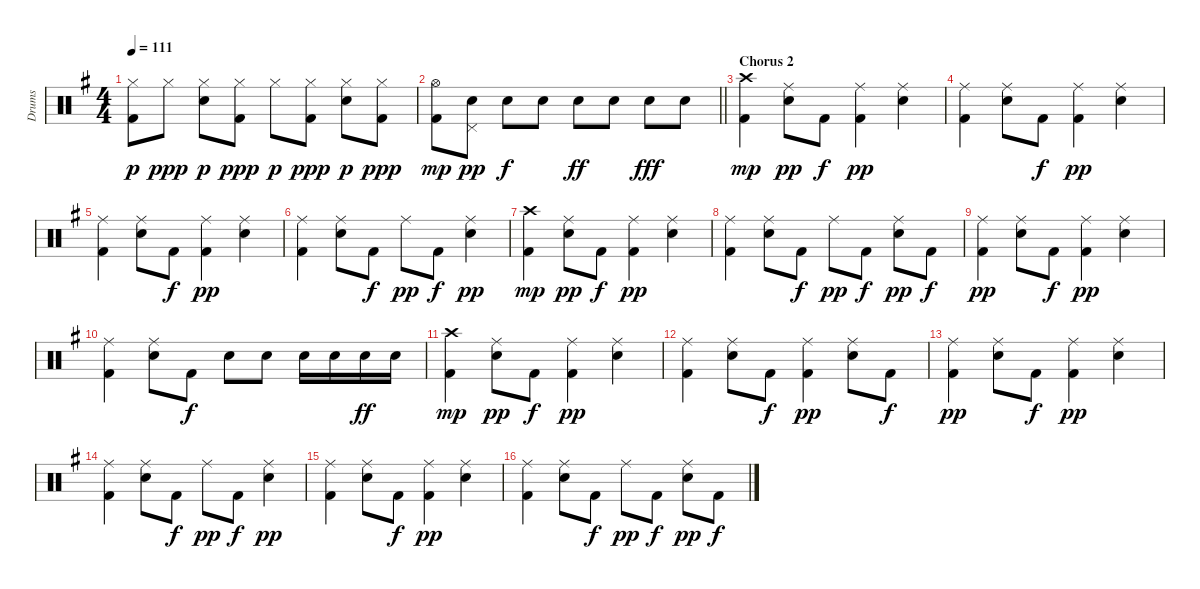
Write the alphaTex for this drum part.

\track ("Drums" "Drums") {instrument percussion}
\staff {score}
\articulation defaults
\ts (4 4)
\tempo 111
\clef neutral
\ks g
("Hi-Hat (closed)" "Kick (hit) 2").8{dy p} "Hi-Hat (closed)".8{dy ppp} ("Hi-Hat (closed)" "Electric Snare (hit)").8{dy p} ("Kick (hit) 2" "Hi-Hat (closed)").8{dy ppp} "Hi-Hat (closed)".8{dy p} ("Kick (hit) 2" "Hi-Hat (closed)").8{dy ppp} ("Hi-Hat (closed)" "Electric Snare (hit)").8{dy p} ("Kick (hit) 2" "Hi-Hat (closed)").8{dy ppp} |
\barLineRight lightlight
("Hi-Hat (open)" "Kick (hit) 2").8{dy mp} ("Electric Snare (hit)" "Pedal Hi-Hat (hit)").8{dy pp} "Electric Snare (hit)".8{dy f} "Electric Snare (hit)".8 "Electric Snare (hit)".8{dy ff} "Electric Snare (hit)".8 "Electric Snare (hit)".8{dy fff} "Electric Snare (hit)".8 |
\section ("" "Chorus 2")
("Crash high (hit)" "Kick (hit) 2").4{dy mp} ("Electric Snare (hit)" "Ride (middle)").8{dy pp} "Kick (hit) 2".8{dy f} ("Kick (hit) 2" "Ride (middle)").4{dy pp} ("Electric Snare (hit)" "Ride (middle)").4 |
("Kick (hit) 2" "Ride (middle)").4 ("Electric Snare (hit)" "Ride (middle)").8 "Kick (hit) 2".8{dy f} ("Kick (hit) 2" "Ride (middle)").4{dy pp} ("Electric Snare (hit)" "Ride (middle)").4 |
("Kick (hit) 2" "Ride (middle)").4 ("Electric Snare (hit)" "Ride (middle)").8 "Kick (hit) 2".8{dy f} ("Kick (hit) 2" "Ride (middle)").4{dy pp} ("Electric Snare (hit)" "Ride (middle)").4 |
("Kick (hit) 2" "Ride (middle)").4 ("Electric Snare (hit)" "Ride (middle)").8 "Kick (hit) 2".8{dy f} "Ride (middle)".8{dy pp} "Kick (hit) 2".8{dy f} ("Electric Snare (hit)" "Ride (middle)").4{dy pp} |
("Crash high (hit)" "Kick (hit) 2").4{dy mp} ("Electric Snare (hit)" "Ride (middle)").8{dy pp} "Kick (hit) 2".8{dy f} ("Kick (hit) 2" "Ride (middle)").4{dy pp} ("Electric Snare (hit)" "Ride (middle)").4 |
("Kick (hit) 2" "Ride (middle)").4 ("Electric Snare (hit)" "Ride (middle)").8 "Kick (hit) 2".8{dy f} "Ride (middle)".8{dy pp} "Kick (hit) 2".8{dy f} ("Electric Snare (hit)" "Ride (middle)").8{dy pp} "Kick (hit) 2".8{dy f} |
("Kick (hit) 2" "Ride (middle)").4{dy pp} ("Electric Snare (hit)" "Ride (middle)").8 "Kick (hit) 2".8{dy f} ("Kick (hit) 2" "Ride (middle)").4{dy pp} ("Electric Snare (hit)" "Ride (middle)").4 |
("Kick (hit) 2" "Ride (middle)").4 ("Electric Snare (hit)" "Ride (middle)").8 "Kick (hit) 2".8{dy f} "Electric Snare (hit)".8 "Electric Snare (hit)".8 "Electric Snare (hit)".16 "Electric Snare (hit)".16 "Electric Snare (hit)".16{dy ff} "Electric Snare (hit)".16 |
("Crash high (hit)" "Kick (hit) 2").4{dy mp} ("Electric Snare (hit)" "Ride (middle)").8{dy pp} "Kick (hit) 2".8{dy f} ("Kick (hit) 2" "Ride (middle)").4{dy pp} ("Electric Snare (hit)" "Ride (middle)").4 |
("Kick (hit) 2" "Ride (middle)").4 ("Electric Snare (hit)" "Ride (middle)").8 "Kick (hit) 2".8{dy f} ("Kick (hit) 2" "Ride (middle)").4{dy pp} ("Electric Snare (hit)" "Ride (middle)").8 "Kick (hit) 2".8{dy f} |
("Kick (hit) 2" "Ride (middle)").4{dy pp} ("Electric Snare (hit)" "Ride (middle)").8 "Kick (hit) 2".8{dy f} ("Kick (hit) 2" "Ride (middle)").4{dy pp} ("Electric Snare (hit)" "Ride (middle)").4 |
("Kick (hit) 2" "Ride (middle)").4 ("Electric Snare (hit)" "Ride (middle)").8 "Kick (hit) 2".8{dy f} "Ride (middle)".8{dy pp} "Kick (hit) 2".8{dy f} ("Electric Snare (hit)" "Ride (middle)").4{dy pp} |
("Kick (hit) 2" "Ride (middle)").4 ("Electric Snare (hit)" "Ride (middle)").8 "Kick (hit) 2".8{dy f} ("Kick (hit) 2" "Ride (middle)").4{dy pp} ("Electric Snare (hit)" "Ride (middle)").4 |
("Kick (hit) 2" "Ride (middle)").4 ("Electric Snare (hit)" "Ride (middle)").8 "Kick (hit) 2".8{dy f} "Ride (middle)".8{dy pp} "Kick (hit) 2".8{dy f} ("Electric Snare (hit)" "Ride (middle)").8{dy pp} "Kick (hit) 2".8{dy f}
